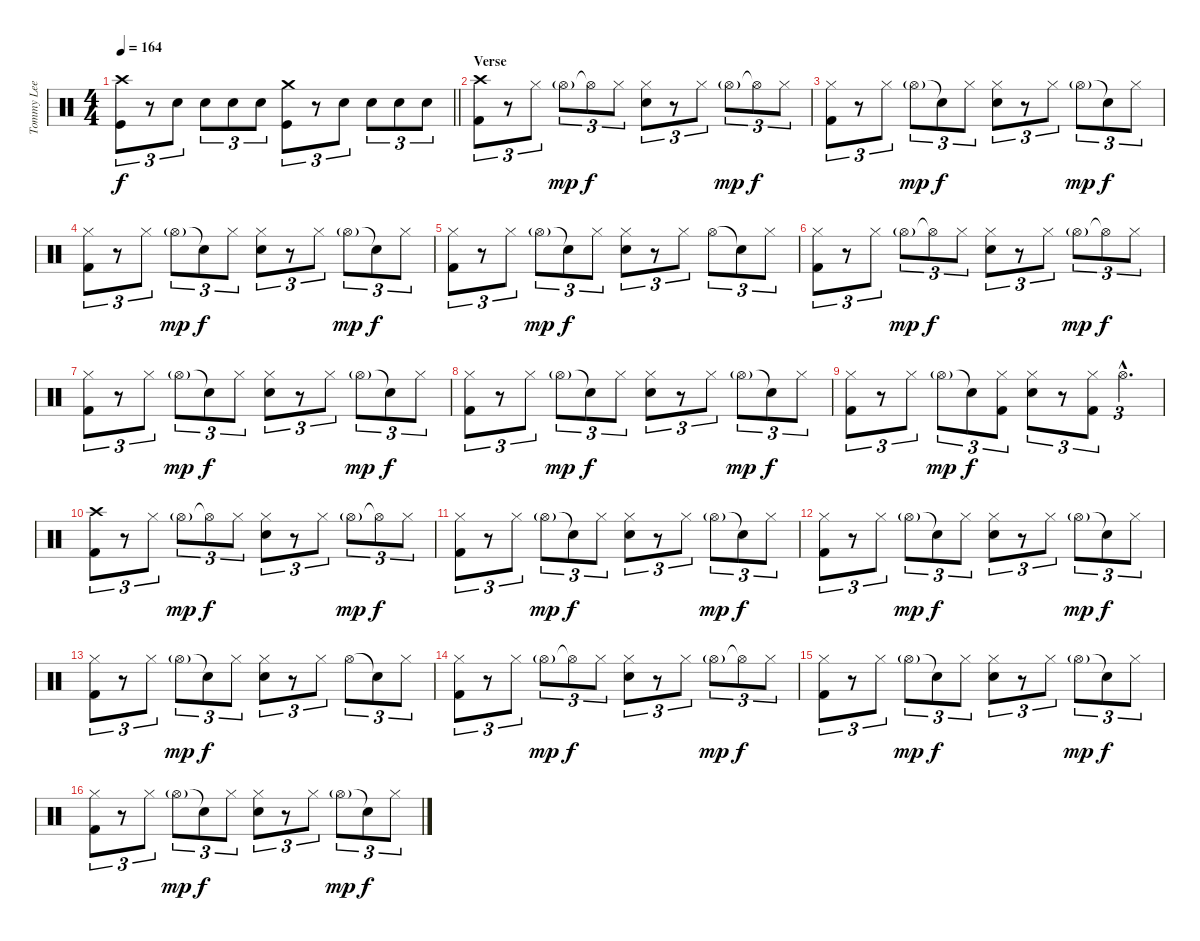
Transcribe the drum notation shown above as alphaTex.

\track ("Tommy Lee" "Tommy Lee") {instrument percussion}
\staff {score}
\articulation defaults
\ts (4 4)
\tempo 164
\clef neutral
\barLineRight lightlight
\ks c
("Crash high (hit)" "Kick (hit)").8{tu (3 2) dy f} r.8{tu (3 2)} "Snare (hit) 2".8{tu (3 2)} "Snare (hit) 2".8{tu (3 2)} "Snare (hit) 2".8{tu (3 2)} "Snare (hit) 2".8{tu (3 2)} ("Crash medium (hit)" "Kick (hit)").8{tu (3 2)} r.8{tu (3 2)} "Snare (hit) 2".8{tu (3 2)} "Snare (hit) 2".8{tu (3 2)} "Snare (hit) 2".8{tu (3 2)} "Snare (hit) 2".8{tu (3 2)} |
\section ("" "Verse")
("Crash high (hit)" "Kick (hit) 2").8{tu (3 2)} r.8{tu (3 2)} "Hi-Hat (closed)".8{tu (3 2)} "Hi-Hat (open)"{g}.8{tu (3 2) dy mp} "Hi-Hat (open)"{t}.8{tu (3 2) dy f} "Hi-Hat (closed)".8{tu (3 2)} ("Hi-Hat (closed)" "Snare (hit) 2").8{tu (3 2)} r.8{tu (3 2)} "Hi-Hat (closed)".8{tu (3 2)} "Hi-Hat (open)"{g}.8{tu (3 2) dy mp} "Hi-Hat (open)"{t}.8{tu (3 2) dy f} "Hi-Hat (closed)".8{tu (3 2)} |
("Hi-Hat (closed)" "Kick (hit) 2").8{tu (3 2)} r.8{tu (3 2)} "Hi-Hat (closed)".8{tu (3 2)} "Hi-Hat (open)"{g}.8{tu (3 2) dy mp} "Snare (hit)"{t}.8{tu (3 2) dy f} "Hi-Hat (closed)".8{tu (3 2)} ("Hi-Hat (closed)" "Snare (hit) 2").8{tu (3 2)} r.8{tu (3 2)} "Hi-Hat (closed)".8{tu (3 2)} "Hi-Hat (open)"{g}.8{tu (3 2) dy mp} "Snare (hit)"{t}.8{tu (3 2) dy f} "Hi-Hat (closed)".8{tu (3 2)} |
("Hi-Hat (closed)" "Kick (hit) 2").8{tu (3 2)} r.8{tu (3 2)} "Hi-Hat (closed)".8{tu (3 2)} "Hi-Hat (open)"{g}.8{tu (3 2) dy mp} "Snare (hit)"{t}.8{tu (3 2) dy f} "Hi-Hat (closed)".8{tu (3 2)} ("Hi-Hat (closed)" "Snare (hit) 2").8{tu (3 2)} r.8{tu (3 2)} "Hi-Hat (closed)".8{tu (3 2)} "Hi-Hat (open)"{g}.8{tu (3 2) dy mp} "Snare (hit)"{t}.8{tu (3 2) dy f} "Hi-Hat (closed)".8{tu (3 2)} |
("Hi-Hat (closed)" "Kick (hit) 2").8{tu (3 2)} r.8{tu (3 2)} "Hi-Hat (closed)".8{tu (3 2)} "Hi-Hat (open)"{g}.8{tu (3 2) dy mp} "Snare (hit)"{t}.8{tu (3 2) dy f} "Hi-Hat (closed)".8{tu (3 2)} ("Hi-Hat (closed)" "Snare (hit) 2").8{tu (3 2)} r.8{tu (3 2)} "Hi-Hat (closed)".8{tu (3 2)} "Hi-Hat (open)".8{tu (3 2)} "Snare (hit)"{t}.8{tu (3 2)} "Hi-Hat (closed)".8{tu (3 2)} |
("Hi-Hat (closed)" "Kick (hit) 2").8{tu (3 2)} r.8{tu (3 2)} "Hi-Hat (closed)".8{tu (3 2)} "Hi-Hat (open)"{g}.8{tu (3 2) dy mp} "Hi-Hat (open)"{t}.8{tu (3 2) dy f} "Hi-Hat (closed)".8{tu (3 2)} ("Hi-Hat (closed)" "Snare (hit) 2").8{tu (3 2)} r.8{tu (3 2)} "Hi-Hat (closed)".8{tu (3 2)} "Hi-Hat (open)"{g}.8{tu (3 2) dy mp} "Hi-Hat (open)"{t}.8{tu (3 2) dy f} "Hi-Hat (closed)".8{tu (3 2)} |
("Hi-Hat (closed)" "Kick (hit) 2").8{tu (3 2)} r.8{tu (3 2)} "Hi-Hat (closed)".8{tu (3 2)} "Hi-Hat (open)"{g}.8{tu (3 2) dy mp} "Snare (hit)"{t}.8{tu (3 2) dy f} "Hi-Hat (closed)".8{tu (3 2)} ("Hi-Hat (closed)" "Snare (hit) 2").8{tu (3 2)} r.8{tu (3 2)} "Hi-Hat (closed)".8{tu (3 2)} "Hi-Hat (open)"{g}.8{tu (3 2) dy mp} "Snare (hit)"{t}.8{tu (3 2) dy f} "Hi-Hat (closed)".8{tu (3 2)} |
("Hi-Hat (closed)" "Kick (hit) 2").8{tu (3 2)} r.8{tu (3 2)} "Hi-Hat (closed)".8{tu (3 2)} "Hi-Hat (open)"{g}.8{tu (3 2) dy mp} "Snare (hit)"{t}.8{tu (3 2) dy f} "Hi-Hat (closed)".8{tu (3 2)} ("Hi-Hat (closed)" "Snare (hit) 2").8{tu (3 2)} r.8{tu (3 2)} "Hi-Hat (closed)".8{tu (3 2)} "Hi-Hat (open)"{g}.8{tu (3 2) dy mp} "Snare (hit)"{t}.8{tu (3 2) dy f} "Hi-Hat (closed)".8{tu (3 2)} |
("Hi-Hat (closed)" "Kick (hit) 2").8{tu (3 2)} r.8{tu (3 2)} "Hi-Hat (closed)".8{tu (3 2)} "Hi-Hat (open)"{g}.8{tu (3 2) dy mp} "Snare (hit)"{t}.8{tu (3 2) dy f} ("Hi-Hat (closed)" "Kick (hit) 2").8{tu (3 2)} ("Hi-Hat (closed)" "Snare (hit) 2").8{tu (3 2)} r.8{tu (3 2)} ("Hi-Hat (closed)" "Kick (hit) 2").8{tu (3 2)} "Hi-Hat (open)"{hac}.4{d tu (3 2)} |
("Crash high (hit)" "Kick (hit) 2").8{tu (3 2)} r.8{tu (3 2)} "Hi-Hat (closed)".8{tu (3 2)} "Hi-Hat (open)"{g}.8{tu (3 2) dy mp} "Hi-Hat (open)"{t}.8{tu (3 2) dy f} "Hi-Hat (closed)".8{tu (3 2)} ("Hi-Hat (closed)" "Snare (hit) 2").8{tu (3 2)} r.8{tu (3 2)} "Hi-Hat (closed)".8{tu (3 2)} "Hi-Hat (open)"{g}.8{tu (3 2) dy mp} "Hi-Hat (open)"{t}.8{tu (3 2) dy f} "Hi-Hat (closed)".8{tu (3 2)} |
("Hi-Hat (closed)" "Kick (hit) 2").8{tu (3 2)} r.8{tu (3 2)} "Hi-Hat (closed)".8{tu (3 2)} "Hi-Hat (open)"{g}.8{tu (3 2) dy mp} "Snare (hit)"{t}.8{tu (3 2) dy f} "Hi-Hat (closed)".8{tu (3 2)} ("Hi-Hat (closed)" "Snare (hit) 2").8{tu (3 2)} r.8{tu (3 2)} "Hi-Hat (closed)".8{tu (3 2)} "Hi-Hat (open)"{g}.8{tu (3 2) dy mp} "Snare (hit)"{t}.8{tu (3 2) dy f} "Hi-Hat (closed)".8{tu (3 2)} |
("Hi-Hat (closed)" "Kick (hit) 2").8{tu (3 2)} r.8{tu (3 2)} "Hi-Hat (closed)".8{tu (3 2)} "Hi-Hat (open)"{g}.8{tu (3 2) dy mp} "Snare (hit)"{t}.8{tu (3 2) dy f} "Hi-Hat (closed)".8{tu (3 2)} ("Hi-Hat (closed)" "Snare (hit) 2").8{tu (3 2)} r.8{tu (3 2)} "Hi-Hat (closed)".8{tu (3 2)} "Hi-Hat (open)"{g}.8{tu (3 2) dy mp} "Snare (hit)"{t}.8{tu (3 2) dy f} "Hi-Hat (closed)".8{tu (3 2)} |
("Hi-Hat (closed)" "Kick (hit) 2").8{tu (3 2)} r.8{tu (3 2)} "Hi-Hat (closed)".8{tu (3 2)} "Hi-Hat (open)"{g}.8{tu (3 2) dy mp} "Snare (hit)"{t}.8{tu (3 2) dy f} "Hi-Hat (closed)".8{tu (3 2)} ("Hi-Hat (closed)" "Snare (hit) 2").8{tu (3 2)} r.8{tu (3 2)} "Hi-Hat (closed)".8{tu (3 2)} "Hi-Hat (open)".8{tu (3 2)} "Snare (hit)"{t}.8{tu (3 2)} "Hi-Hat (closed)".8{tu (3 2)} |
("Hi-Hat (closed)" "Kick (hit) 2").8{tu (3 2)} r.8{tu (3 2)} "Hi-Hat (closed)".8{tu (3 2)} "Hi-Hat (open)"{g}.8{tu (3 2) dy mp} "Hi-Hat (open)"{t}.8{tu (3 2) dy f} "Hi-Hat (closed)".8{tu (3 2)} ("Hi-Hat (closed)" "Snare (hit) 2").8{tu (3 2)} r.8{tu (3 2)} "Hi-Hat (closed)".8{tu (3 2)} "Hi-Hat (open)"{g}.8{tu (3 2) dy mp} "Hi-Hat (open)"{t}.8{tu (3 2) dy f} "Hi-Hat (closed)".8{tu (3 2)} |
("Hi-Hat (closed)" "Kick (hit) 2").8{tu (3 2)} r.8{tu (3 2)} "Hi-Hat (closed)".8{tu (3 2)} "Hi-Hat (open)"{g}.8{tu (3 2) dy mp} "Snare (hit)"{t}.8{tu (3 2) dy f} "Hi-Hat (closed)".8{tu (3 2)} ("Hi-Hat (closed)" "Snare (hit) 2").8{tu (3 2)} r.8{tu (3 2)} "Hi-Hat (closed)".8{tu (3 2)} "Hi-Hat (open)"{g}.8{tu (3 2) dy mp} "Snare (hit)"{t}.8{tu (3 2) dy f} "Hi-Hat (closed)".8{tu (3 2)} |
("Hi-Hat (closed)" "Kick (hit) 2").8{tu (3 2)} r.8{tu (3 2)} "Hi-Hat (closed)".8{tu (3 2)} "Hi-Hat (open)"{g}.8{tu (3 2) dy mp} "Snare (hit)"{t}.8{tu (3 2) dy f} "Hi-Hat (closed)".8{tu (3 2)} ("Hi-Hat (closed)" "Snare (hit) 2").8{tu (3 2)} r.8{tu (3 2)} "Hi-Hat (closed)".8{tu (3 2)} "Hi-Hat (open)"{g}.8{tu (3 2) dy mp} "Snare (hit)"{t}.8{tu (3 2) dy f} "Hi-Hat (closed)".8{tu (3 2)}
